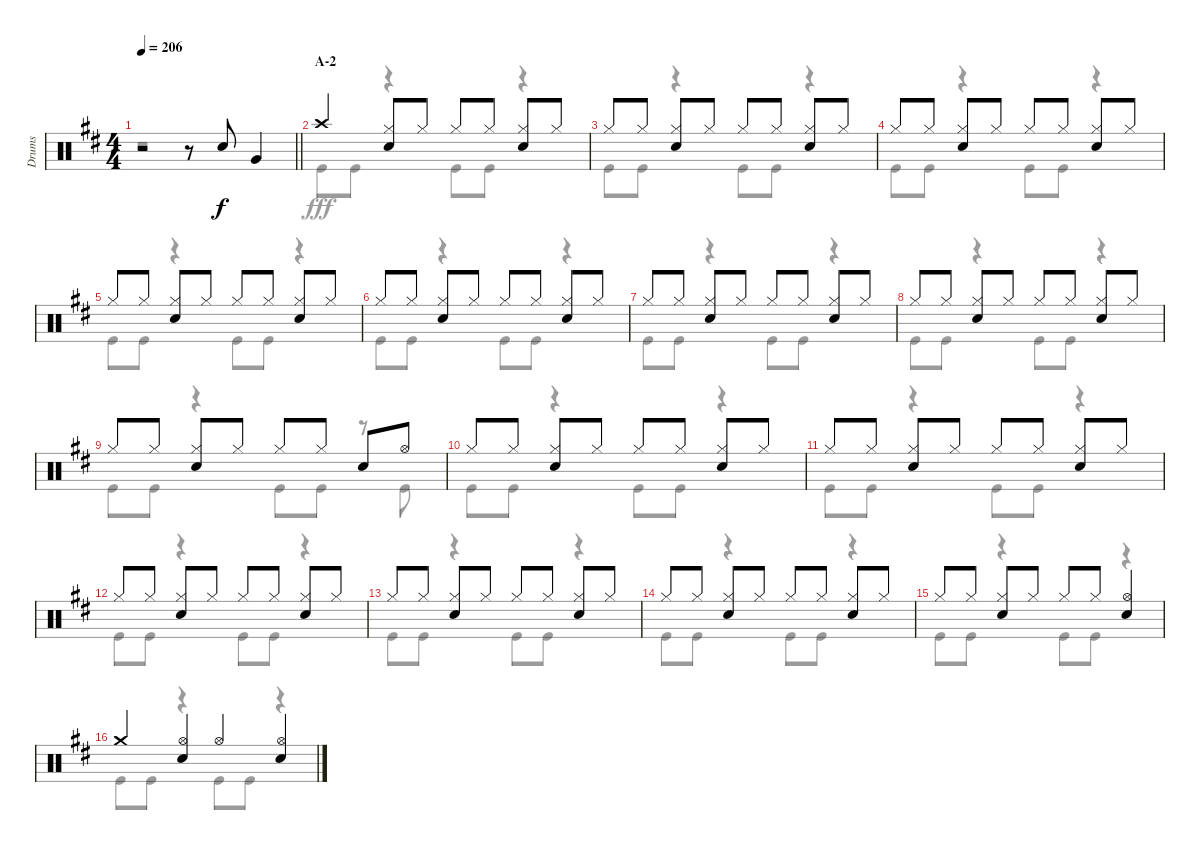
\track ("Drums" "Drums") {instrument percussion}
\staff {score}
\articulation defaults
\voice
\ts (4 4)
\tempo 206
\clef neutral
\barLineRight lightlight
\ks d
r.2{dy f} r.8 "Snare (hit) 2".8 "Very Low Tom (hit)".4 |
\section ("" "A-2")
"Crash high (hit)".4 ("Hi-Hat (closed)" "Snare (hit) 2").8 "Hi-Hat (closed)".8 "Hi-Hat (closed)".8 "Hi-Hat (closed)".8 ("Hi-Hat (closed)" "Snare (hit) 2").8 "Hi-Hat (closed)".8 |
"Hi-Hat (closed)".8 "Hi-Hat (closed)".8 ("Hi-Hat (closed)" "Snare (hit) 2").8 "Hi-Hat (closed)".8 "Hi-Hat (closed)".8 "Hi-Hat (closed)".8 ("Hi-Hat (closed)" "Snare (hit) 2").8 "Hi-Hat (closed)".8 |
"Hi-Hat (closed)".8 "Hi-Hat (closed)".8 ("Hi-Hat (closed)" "Snare (hit) 2").8 "Hi-Hat (closed)".8 "Hi-Hat (closed)".8 "Hi-Hat (closed)".8 ("Hi-Hat (closed)" "Snare (hit) 2").8 "Hi-Hat (closed)".8 |
"Hi-Hat (closed)".8 "Hi-Hat (closed)".8 ("Hi-Hat (closed)" "Snare (hit) 2").8 "Hi-Hat (closed)".8 "Hi-Hat (closed)".8 "Hi-Hat (closed)".8 ("Hi-Hat (closed)" "Snare (hit) 2").8 "Hi-Hat (closed)".8 |
"Hi-Hat (closed)".8 "Hi-Hat (closed)".8 ("Hi-Hat (closed)" "Snare (hit) 2").8 "Hi-Hat (closed)".8 "Hi-Hat (closed)".8 "Hi-Hat (closed)".8 ("Hi-Hat (closed)" "Snare (hit) 2").8 "Hi-Hat (closed)".8 |
"Hi-Hat (closed)".8 "Hi-Hat (closed)".8 ("Hi-Hat (closed)" "Snare (hit) 2").8 "Hi-Hat (closed)".8 "Hi-Hat (closed)".8 "Hi-Hat (closed)".8 ("Hi-Hat (closed)" "Snare (hit) 2").8 "Hi-Hat (closed)".8 |
"Hi-Hat (closed)".8 "Hi-Hat (closed)".8 ("Hi-Hat (closed)" "Snare (hit) 2").8 "Hi-Hat (closed)".8 "Hi-Hat (closed)".8 "Hi-Hat (closed)".8 ("Hi-Hat (closed)" "Snare (hit) 2").8 "Hi-Hat (closed)".8 |
"Hi-Hat (closed)".8 "Hi-Hat (closed)".8 ("Hi-Hat (closed)" "Snare (hit) 2").8 "Hi-Hat (closed)".8 "Hi-Hat (closed)".8 "Hi-Hat (closed)".8 "Snare (hit) 2".8 "Hi-Hat (open)".8 |
"Hi-Hat (closed)".8 "Hi-Hat (closed)".8 ("Hi-Hat (closed)" "Snare (hit) 2").8 "Hi-Hat (closed)".8 "Hi-Hat (closed)".8 "Hi-Hat (closed)".8 ("Hi-Hat (closed)" "Snare (hit) 2").8 "Hi-Hat (closed)".8 |
"Hi-Hat (closed)".8 "Hi-Hat (closed)".8 ("Hi-Hat (closed)" "Snare (hit) 2").8 "Hi-Hat (closed)".8 "Hi-Hat (closed)".8 "Hi-Hat (closed)".8 ("Hi-Hat (closed)" "Snare (hit) 2").8 "Hi-Hat (closed)".8 |
"Hi-Hat (closed)".8 "Hi-Hat (closed)".8 ("Hi-Hat (closed)" "Snare (hit) 2").8 "Hi-Hat (closed)".8 "Hi-Hat (closed)".8 "Hi-Hat (closed)".8 ("Hi-Hat (closed)" "Snare (hit) 2").8 "Hi-Hat (closed)".8 |
"Hi-Hat (closed)".8 "Hi-Hat (closed)".8 ("Hi-Hat (closed)" "Snare (hit) 2").8 "Hi-Hat (closed)".8 "Hi-Hat (closed)".8 "Hi-Hat (closed)".8 ("Hi-Hat (closed)" "Snare (hit) 2").8 "Hi-Hat (closed)".8 |
"Hi-Hat (closed)".8 "Hi-Hat (closed)".8 ("Hi-Hat (closed)" "Snare (hit) 2").8 "Hi-Hat (closed)".8 "Hi-Hat (closed)".8 "Hi-Hat (closed)".8 ("Hi-Hat (closed)" "Snare (hit) 2").8 "Hi-Hat (closed)".8 |
"Hi-Hat (closed)".8 "Hi-Hat (closed)".8 ("Hi-Hat (closed)" "Snare (hit) 2").8 "Hi-Hat (closed)".8 "Hi-Hat (closed)".8 "Hi-Hat (closed)".8 ("Hi-Hat (open)" "Snare (hit) 2").4 |
"Crash medium (hit)".4 ("Hi-Hat (open)" "Snare (hit) 2").4 "Hi-Hat (open)".4 ("Hi-Hat (open)" "Snare (hit) 2").4
\voice
\clef neutral
\ottava regular
\simile none
\barLineRight lightlight
\ks d
r.1{dy fff} |
"Kick (hit)".8 "Kick (hit)".8 r.4 "Kick (hit)".8 "Kick (hit)".8 r.4 |
"Kick (hit)".8 "Kick (hit)".8 r.4 "Kick (hit)".8 "Kick (hit)".8 r.4 |
"Kick (hit)".8 "Kick (hit)".8 r.4 "Kick (hit)".8 "Kick (hit)".8 r.4 |
"Kick (hit)".8 "Kick (hit)".8 r.4 "Kick (hit)".8 "Kick (hit)".8 r.4 |
"Kick (hit)".8 "Kick (hit)".8 r.4 "Kick (hit)".8 "Kick (hit)".8 r.4 |
"Kick (hit)".8 "Kick (hit)".8 r.4 "Kick (hit)".8 "Kick (hit)".8 r.4 |
"Kick (hit)".8 "Kick (hit)".8 r.4 "Kick (hit)".8 "Kick (hit)".8 r.4 |
"Kick (hit)".8 "Kick (hit)".8 r.4 "Kick (hit)".8 "Kick (hit)".8 r.8 "Kick (hit)".8 |
"Kick (hit)".8 "Kick (hit)".8 r.4 "Kick (hit)".8 "Kick (hit)".8 r.4 |
"Kick (hit)".8 "Kick (hit)".8 r.4 "Kick (hit)".8 "Kick (hit)".8 r.4 |
"Kick (hit)".8 "Kick (hit)".8 r.4 "Kick (hit)".8 "Kick (hit)".8 r.4 |
"Kick (hit)".8 "Kick (hit)".8 r.4 "Kick (hit)".8 "Kick (hit)".8 r.4 |
"Kick (hit)".8 "Kick (hit)".8 r.4 "Kick (hit)".8 "Kick (hit)".8 r.4 |
"Kick (hit)".8 "Kick (hit)".8 r.4 "Kick (hit)".8 "Kick (hit)".8 r.4 |
"Kick (hit)".8 "Kick (hit)".8 r.4 "Kick (hit)".8 "Kick (hit)".8 r.4
